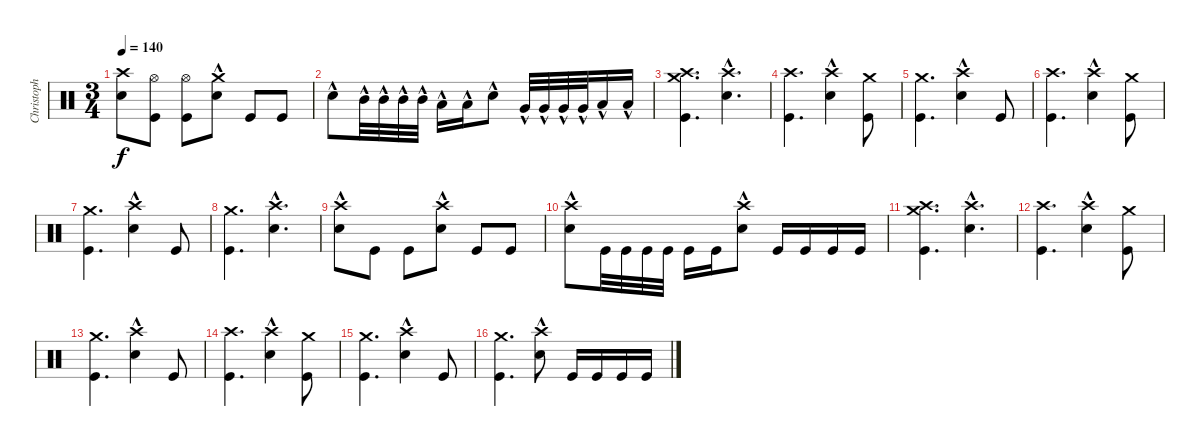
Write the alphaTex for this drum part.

\track ("Christoph \"Doom\" Schneider" "Christoph ") {instrument percussion}
\staff {score}
\articulation defaults
\ts (3 4)
\tempo 140
\clef neutral
\ks c
("Crash high (hit)" "Snare (hit) 2").8{dy f} ("Hi-Hat (open)" "Kick (hit)").8 ("Hi-Hat (open)" "Kick (hit)").8 ("Crash medium (hit)" "Snare (hit) 2"{hac}).8 "Kick (hit)".8 "Kick (hit)".8 |
"Snare (hit) 2"{hac}.8 "Mid Tom (hit)"{hac}.32 "Mid Tom (hit)"{hac}.32 "Mid Tom (hit)"{hac}.32 "Mid Tom (hit)"{hac}.32 "Low Tom (hit)"{hac}.16 "Low Tom (hit)"{hac}.16 "Snare (hit) 2"{hac}.8 "Very Low Tom (hit)"{hac}.32 "Very Low Tom (hit)"{hac}.32 "Very Low Tom (hit)"{hac}.32 "Very Low Tom (hit)"{hac}.32 "Low Floor Tom (hit)"{hac}.16 "Low Floor Tom (hit)"{hac}.16 |
("Crash high (hit)" "Kick (hit)" "Crash medium (hit)").4{d} ("Crash high (hit)" "Snare (hit) 2"{hac}).4{d} |
("Crash high (hit)" "Kick (hit)").4{d} ("Crash high (hit)" "Snare (hit) 2"{hac}).4 ("Crash medium (hit)" "Kick (hit)").8 |
("Kick (hit)" "Crash medium (hit)").4{d} ("Crash high (hit)" "Snare (hit) 2"{hac}).4 "Kick (hit)".8 |
("Crash high (hit)" "Kick (hit)").4{d} ("Crash high (hit)" "Snare (hit) 2"{hac}).4 ("Crash medium (hit)" "Kick (hit)").8 |
("Kick (hit)" "Crash medium (hit)").4{d} ("Crash high (hit)" "Snare (hit) 2"{hac}).4 "Kick (hit)".8 |
("Kick (hit)" "Crash medium (hit)").4{d} ("Crash high (hit)" "Snare (hit) 2"{hac}).4{d} |
("Crash high (hit)" "Snare (hit) 2"{hac}).8 "Kick (hit)".8 "Kick (hit)".8 ("Crash high (hit)" "Snare (hit) 2"{hac}).8 "Kick (hit)".8 "Kick (hit)".8 |
("Crash high (hit)" "Snare (hit) 2"{hac}).8 "Kick (hit)".32 "Kick (hit)".32 "Kick (hit)".32 "Kick (hit)".32 "Kick (hit)".16 "Kick (hit)".16 ("Crash high (hit)" "Snare (hit) 2"{hac}).8 "Kick (hit)".16 "Kick (hit)".16 "Kick (hit)".16 "Kick (hit)".16 |
("Crash high (hit)" "Kick (hit)" "Crash medium (hit)").4{d} ("Crash high (hit)" "Snare (hit) 2"{hac}).4{d} |
("Crash high (hit)" "Kick (hit)").4{d} ("Crash high (hit)" "Snare (hit) 2"{hac}).4 ("Crash medium (hit)" "Kick (hit)").8 |
("Kick (hit)" "Crash medium (hit)").4{d} ("Crash high (hit)" "Snare (hit) 2"{hac}).4 "Kick (hit)".8 |
("Crash high (hit)" "Kick (hit)").4{d} ("Crash high (hit)" "Snare (hit) 2"{hac}).4 ("Crash medium (hit)" "Kick (hit)").8 |
("Kick (hit)" "Crash medium (hit)").4{d} ("Crash high (hit)" "Snare (hit) 2"{hac}).4 "Kick (hit)".8 |
("Kick (hit)" "Crash medium (hit)").4{d} ("Crash high (hit)" "Snare (hit) 2"{hac}).8 "Kick (hit)".16 "Kick (hit)".16 "Kick (hit)".16 "Kick (hit)".16
